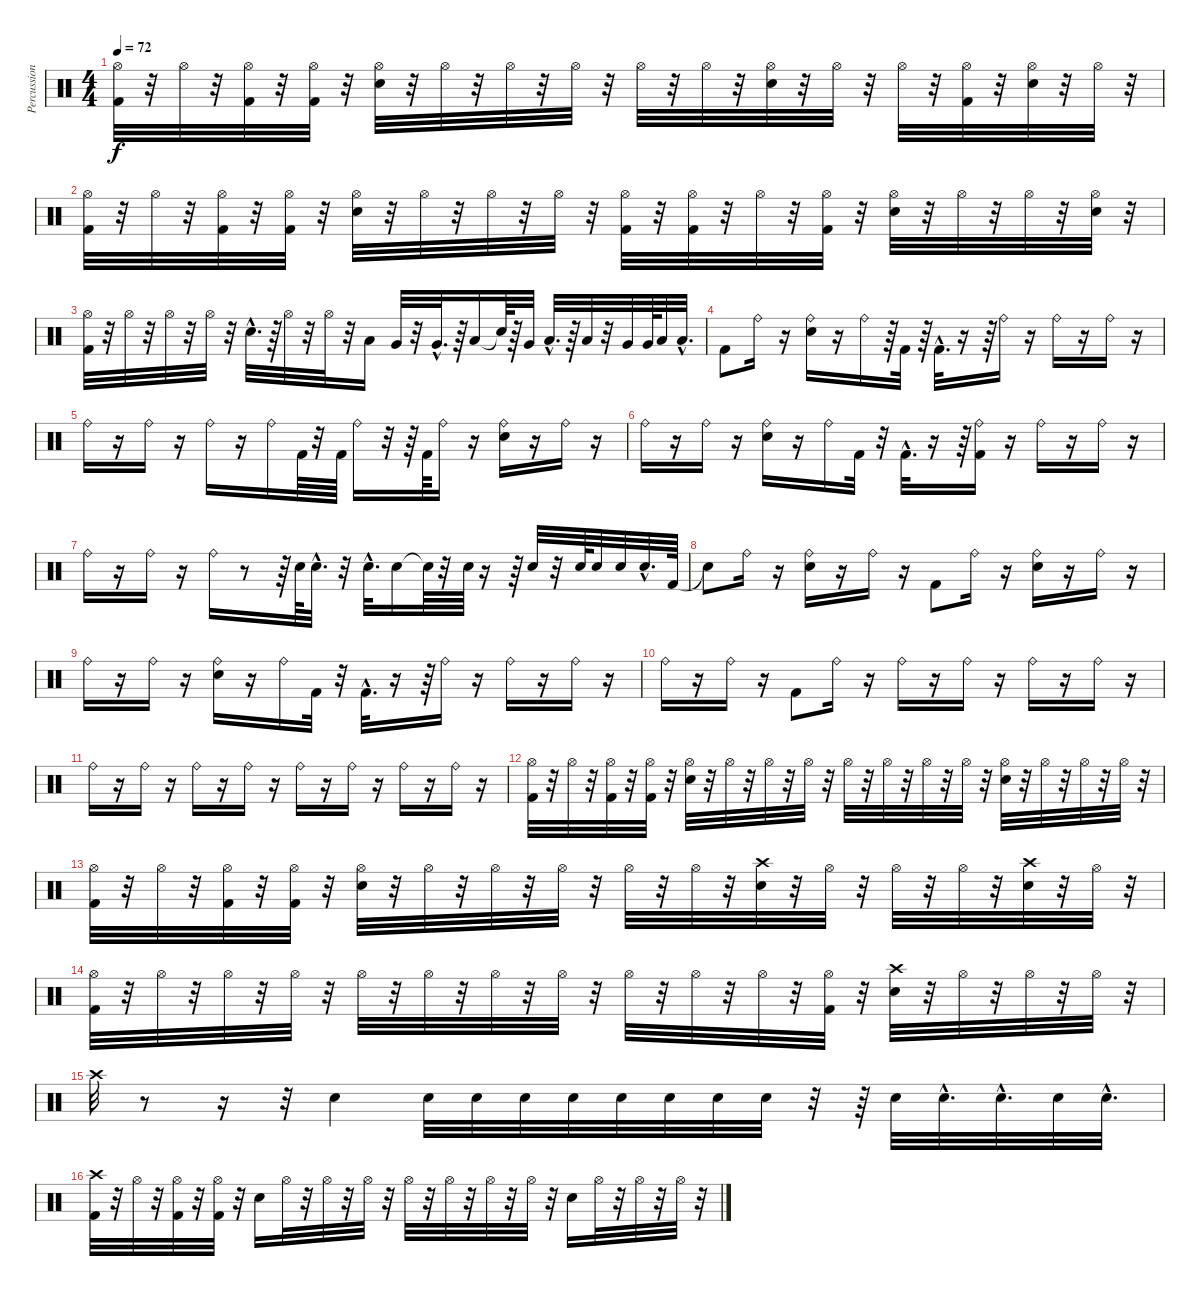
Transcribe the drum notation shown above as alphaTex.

\track ("Percussions" "Percussion") {instrument percussion}
\staff {score}
\articulation defaults
\ts (4 4)
\tempo 72
\clef neutral
\ks c
("Hi-Hat (open)" "Kick (hit) 2").32{dy f} r.32 "Hi-Hat (open)".32 r.32 ("Hi-Hat (open)" "Kick (hit) 2").32 r.32 ("Hi-Hat (open)" "Kick (hit) 2").32 r.32 ("Snare (hit) 2" "Hi-Hat (open)").32 r.32 "Hi-Hat (open)".32 r.32 "Hi-Hat (open)".32 r.32 "Hi-Hat (open)".32 r.32 "Hi-Hat (open)".32 r.32 "Hi-Hat (open)".32 r.32 ("Snare (hit) 2" "Hi-Hat (open)").32 r.32 "Hi-Hat (open)".32 r.32 "Hi-Hat (open)".32 r.32 ("Hi-Hat (open)" "Kick (hit) 2").32 r.32 ("Snare (hit) 2" "Hi-Hat (open)").32 r.32 "Hi-Hat (open)".32 r.32 |
("Hi-Hat (open)" "Kick (hit) 2").32 r.32 "Hi-Hat (open)".32 r.32 ("Hi-Hat (open)" "Kick (hit) 2").32 r.32 ("Hi-Hat (open)" "Kick (hit) 2").32 r.32 ("Snare (hit) 2" "Hi-Hat (open)").32 r.32 "Hi-Hat (open)".32 r.32 "Hi-Hat (open)".32 r.32 "Hi-Hat (open)".32 r.32 ("Hi-Hat (open)" "Kick (hit) 2").32 r.32 ("Hi-Hat (open)" "Kick (hit) 2").32 r.32 "Hi-Hat (open)".32 r.32 ("Hi-Hat (open)" "Kick (hit) 2").32 r.32 ("Hi-Hat (open)" "Snare (hit) 2").32 r.32 "Hi-Hat (open)".32 r.32 "Hi-Hat (open)".32 r.32 ("Hi-Hat (open)" "Snare (hit) 2").32 r.32 |
("Hi-Hat (open)" "Kick (hit) 2").32 r.32 "Hi-Hat (open)".32 r.32 "Hi-Hat (open)".32 r.32 "Hi-Hat (open)".32 r.32 "Snare (hit) 2"{hac}.32{d} r.64 "Hi-Hat (open)".32 r.32 "Hi-Hat (open)".32 r.32 "Low Floor Tom (hit)".16 "Very Low Tom (hit)".32 r.32 "Very Low Tom (hit)"{hac}.32{d} r.64 "Low Floor Tom (hit)".16 "Snare (hit)"{t}.64 r.64 "Very Low Tom (hit)".32 "Low Tom (hit)"{hac}.32{d} r.64 "Low Tom (hit)".32 r.32 "Very Low Tom (hit)".32 "Very Low Tom (hit)".64 "Low Floor Tom (hit)".32 "Low Floor Tom (hit)"{hac}.32{d} |
"Kick (hit) 2".8 "Ride (bell)".16 r.16 ("Snare (hit) 2" "Ride (bell)").16 r.16 "Ride (bell)".16 r.64 "Kick (hit) 2".32 r.64 "Kick (hit) 2"{hac}.32{d} r.16 r.64 "Ride (bell)".16 r.16 "Ride (bell)".16 r.16 "Ride (bell)".16 r.16 |
"Ride (bell)".16 r.16 "Ride (bell)".16 r.16 "Ride (bell)".16 r.16 "Ride (bell)".16 "Kick (hit) 2".64 r.32 "Kick (hit) 2".64 "Ride (bell)".16 r.32 r.64 "Kick (hit) 2".64 "Ride (bell)".16 r.16 ("Snare (hit) 2" "Ride (bell)").16 r.16 "Ride (bell)".16 r.16 |
"Ride (bell)".16 r.16 "Ride (bell)".16 r.16 ("Snare (hit) 2" "Ride (bell)").16 r.16 "Ride (bell)".16 "Kick (hit) 2".32 r.32 "Kick (hit) 2"{hac}.32{d} r.16 r.64 ("Ride (bell)" "Kick (hit) 2").16 r.16 "Ride (bell)".16 r.16 "Ride (bell)".16 r.16 |
"Ride (bell)".16 r.16 "Ride (bell)".16 r.16 "Ride (bell)".16 r.8 r.64 "Snare (hit) 2".64 "Snare (hit) 2"{hac}.32{d} r.32 "Snare (hit) 2"{hac}.32{d} "Snare (hit) 2".16 "Snare (hit)"{t}.64 r.32 "Snare (hit) 2".64 r.16 r.64 "Snare (hit) 2".32 r.32 "Snare (hit) 2".64 "Snare (hit) 2".32 "Snare (hit) 2".32 "Snare (hit) 2"{hac}.32{d} "Kick (hit) 2".64 |
"Snare (hit)"{t}.8 "Ride (bell)".16 r.16 ("Snare (hit) 2" "Ride (bell)").16 r.16 "Ride (bell)".16 r.16 "Kick (hit) 2".8 "Ride (bell)".16 r.16 ("Snare (hit) 2" "Ride (bell)").16 r.16 "Ride (bell)".16 r.16 |
"Ride (bell)".16 r.16 "Ride (bell)".16 r.16 ("Snare (hit) 2" "Ride (bell)").16 r.16 "Ride (bell)".16 "Kick (hit) 2".32 r.32 "Kick (hit) 2"{hac}.32{d} r.16 r.64 "Ride (bell)".16 r.16 "Ride (bell)".16 r.16 "Ride (bell)".16 r.16 |
"Ride (bell)".16 r.16 "Ride (bell)".16 r.16 "Kick (hit) 2".8 "Ride (bell)".16 r.16 "Ride (bell)".16 r.16 "Ride (bell)".16 r.16 "Ride (bell)".16 r.16 "Ride (bell)".16 r.16 |
"Ride (bell)".16 r.16 "Ride (bell)".16 r.16 "Ride (bell)".16 r.16 "Ride (bell)".16 r.16 "Ride (bell)".16 r.16 "Ride (bell)".16 r.16 "Ride (bell)".16 r.16 "Ride (bell)".16 r.16 |
("Hi-Hat (open)" "Kick (hit) 2").32 r.32 "Hi-Hat (open)".32 r.32 ("Hi-Hat (open)" "Kick (hit) 2").32 r.32 ("Hi-Hat (open)" "Kick (hit) 2").32 r.32 ("Snare (hit) 2" "Hi-Hat (open)").32 r.32 "Hi-Hat (open)".32 r.32 "Hi-Hat (open)".32 r.32 "Hi-Hat (open)".32 r.32 "Hi-Hat (open)".32 r.32 "Hi-Hat (open)".32 r.32 "Hi-Hat (open)".32 r.32 "Hi-Hat (open)".32 r.32 ("Snare (hit) 2" "Hi-Hat (open)").32 r.32 "Hi-Hat (open)".32 r.32 "Hi-Hat (open)".32 r.32 "Hi-Hat (open)".32 r.32 |
("Hi-Hat (open)" "Kick (hit) 2").32 r.32 "Hi-Hat (open)".32 r.32 ("Hi-Hat (open)" "Kick (hit) 2").32 r.32 ("Hi-Hat (open)" "Kick (hit) 2").32 r.32 ("Snare (hit) 2" "Hi-Hat (open)").32 r.32 "Hi-Hat (open)".32 r.32 "Hi-Hat (open)".32 r.32 "Hi-Hat (open)".32 r.32 "Hi-Hat (open)".32 r.32 "Hi-Hat (open)".32 r.32 ("Snare (hit) 2" "Crash high (hit)").32 r.32 "Hi-Hat (open)".32 r.32 "Hi-Hat (open)".32 r.32 "Hi-Hat (open)".32 r.32 ("Snare (hit) 2" "Crash high (hit)").32 r.32 "Hi-Hat (open)".32 r.32 |
("Hi-Hat (open)" "Kick (hit) 2").32 r.32 "Hi-Hat (open)".32 r.32 "Hi-Hat (open)".32 r.32 "Hi-Hat (open)".32 r.32 "Hi-Hat (open)".32 r.32 "Hi-Hat (open)".32 r.32 "Hi-Hat (open)".32 r.32 "Hi-Hat (open)".32 r.32 "Hi-Hat (open)".32 r.32 "Hi-Hat (open)".32 r.32 "Hi-Hat (open)".32 r.32 ("Hi-Hat (open)" "Kick (hit) 2").32 r.32 ("Snare (hit) 2" "Crash high (hit)").32 r.32 "Hi-Hat (open)".32 r.32 "Hi-Hat (open)".32 r.32 "Hi-Hat (open)".32 r.32 |
"Crash high (hit)".32 r.8 r.16 r.32 "Snare (hit) 2".4 "Snare (hit) 2".32 "Snare (hit) 2".32 "Snare (hit) 2".32 "Snare (hit) 2".32 "Snare (hit) 2".32 "Snare (hit) 2".32 "Snare (hit) 2".32 "Snare (hit) 2".32 r.32 r.64 "Snare (hit) 2".32 "Snare (hit) 2"{hac}.32{d} "Snare (hit) 2"{hac}.32{d} "Snare (hit) 2".32 "Snare (hit) 2"{hac}.32{d} |
("Crash high (hit)" "Kick (hit) 2").32 r.32 "Hi-Hat (open)".32 r.32 ("Hi-Hat (open)" "Kick (hit) 2").32 r.32 ("Hi-Hat (open)" "Kick (hit) 2").32 r.32 "Snare (hit) 2".16 "Hi-Hat (open)".32 r.32 "Hi-Hat (open)".32 r.32 "Hi-Hat (open)".32 r.32 "Hi-Hat (open)".32 r.32 "Hi-Hat (open)".32 r.32 "Hi-Hat (open)".32 r.32 "Hi-Hat (open)".32 r.32 "Snare (hit) 2".16 "Hi-Hat (open)".32 r.32 "Hi-Hat (open)".32 r.32 "Hi-Hat (open)".32 r.32
